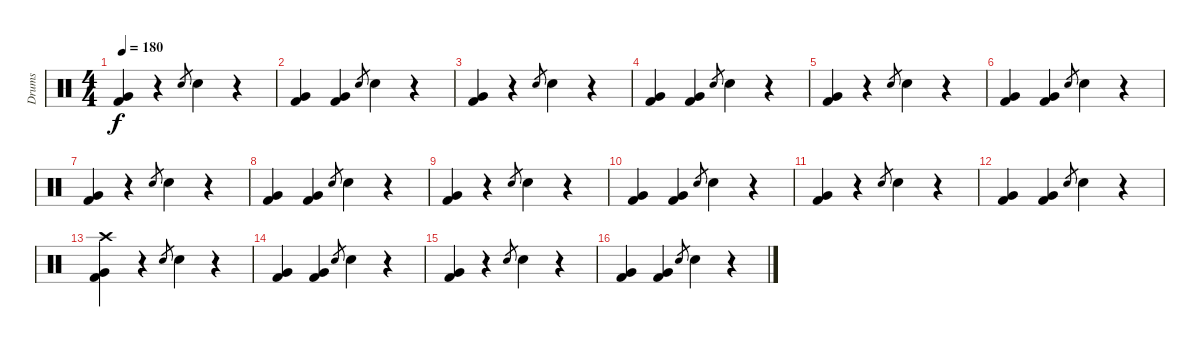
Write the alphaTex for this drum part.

\track ("Drums" "Drums") {instrument percussion}
\staff {score}
\articulation defaults
\ts (4 4)
\tempo 180
\clef neutral
\ks c
("Very Low Tom (hit)" "Kick (hit) 2").4{dy f} r.4 "Electric Snare (hit)".8{gr} "Electric Snare (hit)".4 r.4 |
("Very Low Tom (hit)" "Kick (hit) 2").4 ("Very Low Tom (hit)" "Kick (hit) 2").4 "Electric Snare (hit)".8{gr} "Electric Snare (hit)".4 r.4 |
("Very Low Tom (hit)" "Kick (hit) 2").4 r.4 "Electric Snare (hit)".8{gr} "Electric Snare (hit)".4 r.4 |
("Very Low Tom (hit)" "Kick (hit) 2").4 ("Very Low Tom (hit)" "Kick (hit) 2").4 "Electric Snare (hit)".8{gr} "Electric Snare (hit)".4 r.4 |
("Very Low Tom (hit)" "Kick (hit) 2").4 r.4 "Electric Snare (hit)".8{gr} "Electric Snare (hit)".4 r.4 |
("Very Low Tom (hit)" "Kick (hit) 2").4 ("Very Low Tom (hit)" "Kick (hit) 2").4 "Electric Snare (hit)".8{gr} "Electric Snare (hit)".4 r.4 |
("Very Low Tom (hit)" "Kick (hit) 2").4 r.4 "Electric Snare (hit)".8{gr} "Electric Snare (hit)".4 r.4 |
("Very Low Tom (hit)" "Kick (hit) 2").4 ("Very Low Tom (hit)" "Kick (hit) 2").4 "Electric Snare (hit)".8{gr} "Electric Snare (hit)".4 r.4 |
("Very Low Tom (hit)" "Kick (hit) 2").4 r.4 "Electric Snare (hit)".8{gr} "Electric Snare (hit)".4 r.4 |
("Very Low Tom (hit)" "Kick (hit) 2").4 ("Very Low Tom (hit)" "Kick (hit) 2").4 "Electric Snare (hit)".8{gr} "Electric Snare (hit)".4 r.4 |
("Very Low Tom (hit)" "Kick (hit) 2").4 r.4 "Electric Snare (hit)".8{gr} "Electric Snare (hit)".4 r.4 |
("Very Low Tom (hit)" "Kick (hit) 2").4 ("Very Low Tom (hit)" "Kick (hit) 2").4 "Electric Snare (hit)".8{gr} "Electric Snare (hit)".4 r.4 |
("Crash high (hit)" "Very Low Tom (hit)" "Kick (hit) 2").4 r.4 "Electric Snare (hit)".8{gr} "Electric Snare (hit)".4 r.4 |
("Very Low Tom (hit)" "Kick (hit) 2").4 ("Very Low Tom (hit)" "Kick (hit) 2").4 "Electric Snare (hit)".8{gr} "Electric Snare (hit)".4 r.4 |
("Very Low Tom (hit)" "Kick (hit) 2").4 r.4 "Electric Snare (hit)".8{gr} "Electric Snare (hit)".4 r.4 |
("Very Low Tom (hit)" "Kick (hit) 2").4 ("Very Low Tom (hit)" "Kick (hit) 2").4 "Electric Snare (hit)".8{gr} "Electric Snare (hit)".4 r.4
